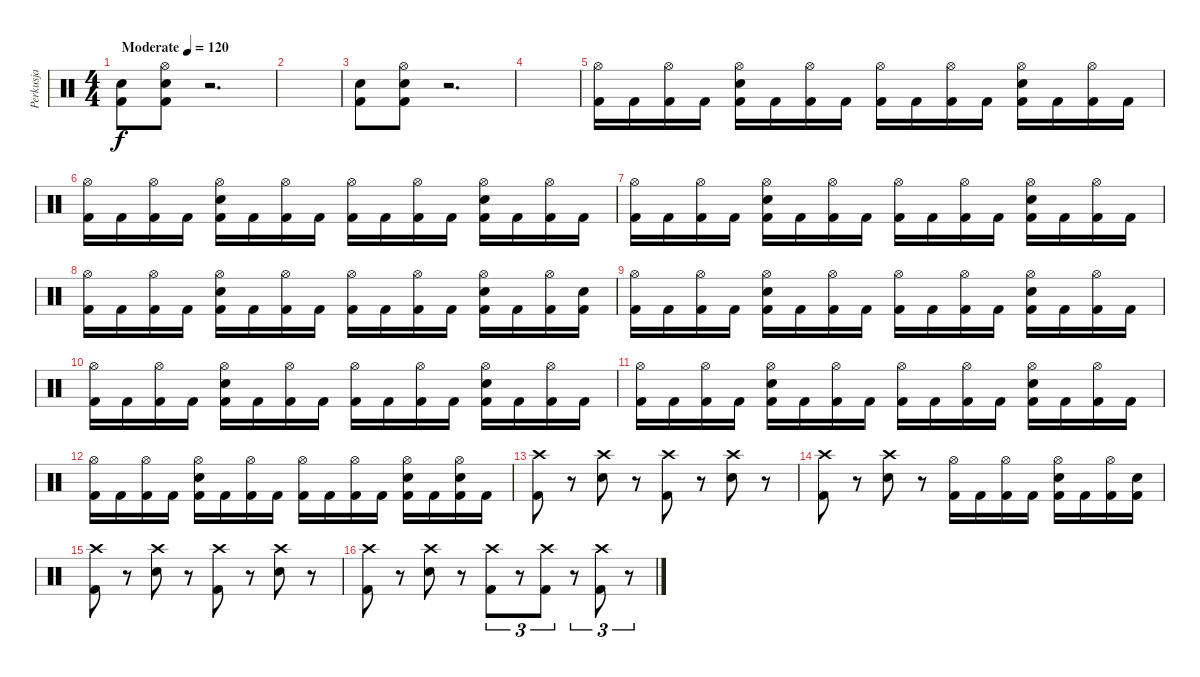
\track ("Perkusja" "Perkusja") {instrument percussion}
\staff {score}
\articulation defaults
\ts (4 4)
\tempo (120 "Moderate")
\tempo 140
\tempo (120 "Moderate")
\clef neutral
\ks c
("Snare (hit) 2" "Kick (hit) 2").8{dy f} ("Hi-Hat (open)" "Snare (hit) 2" "Kick (hit) 2").8 r.2{d} |
|
("Snare (hit) 2" "Kick (hit) 2").8 ("Hi-Hat (open)" "Snare (hit) 2" "Kick (hit) 2").8 r.2{d} |
|
("Hi-Hat (open)" "Kick (hit) 2").16 "Kick (hit) 2".16 ("Hi-Hat (open)" "Kick (hit) 2").16 "Kick (hit) 2".16 ("Hi-Hat (open)" "Snare (hit) 2" "Kick (hit) 2").16 "Kick (hit) 2".16 ("Hi-Hat (open)" "Kick (hit) 2").16 "Kick (hit) 2".16 ("Hi-Hat (open)" "Kick (hit) 2").16 "Kick (hit) 2".16 ("Hi-Hat (open)" "Kick (hit) 2").16 "Kick (hit) 2".16 ("Hi-Hat (open)" "Snare (hit) 2" "Kick (hit) 2").16 "Kick (hit) 2".16 ("Hi-Hat (open)" "Kick (hit) 2").16 "Kick (hit) 2".16 |
("Hi-Hat (open)" "Kick (hit) 2").16 "Kick (hit) 2".16 ("Hi-Hat (open)" "Kick (hit) 2").16 "Kick (hit) 2".16 ("Hi-Hat (open)" "Snare (hit) 2" "Kick (hit) 2").16 "Kick (hit) 2".16 ("Hi-Hat (open)" "Kick (hit) 2").16 "Kick (hit) 2".16 ("Hi-Hat (open)" "Kick (hit) 2").16 "Kick (hit) 2".16 ("Hi-Hat (open)" "Kick (hit) 2").16 "Kick (hit) 2".16 ("Hi-Hat (open)" "Snare (hit) 2" "Kick (hit) 2").16 "Kick (hit) 2".16 ("Hi-Hat (open)" "Kick (hit) 2").16 "Kick (hit) 2".16 |
("Hi-Hat (open)" "Kick (hit) 2").16 "Kick (hit) 2".16 ("Hi-Hat (open)" "Kick (hit) 2").16 "Kick (hit) 2".16 ("Hi-Hat (open)" "Snare (hit) 2" "Kick (hit) 2").16 "Kick (hit) 2".16 ("Hi-Hat (open)" "Kick (hit) 2").16 "Kick (hit) 2".16 ("Hi-Hat (open)" "Kick (hit) 2").16 "Kick (hit) 2".16 ("Hi-Hat (open)" "Kick (hit) 2").16 "Kick (hit) 2".16 ("Hi-Hat (open)" "Snare (hit) 2" "Kick (hit) 2").16 "Kick (hit) 2".16 ("Hi-Hat (open)" "Kick (hit) 2").16 "Kick (hit) 2".16 |
("Hi-Hat (open)" "Kick (hit) 2").16 "Kick (hit) 2".16 ("Hi-Hat (open)" "Kick (hit) 2").16 "Kick (hit) 2".16 ("Hi-Hat (open)" "Snare (hit) 2" "Kick (hit) 2").16 "Kick (hit) 2".16 ("Hi-Hat (open)" "Kick (hit) 2").16 "Kick (hit) 2".16 ("Hi-Hat (open)" "Kick (hit) 2").16 "Kick (hit) 2".16 ("Hi-Hat (open)" "Kick (hit) 2").16 "Kick (hit) 2".16 ("Hi-Hat (open)" "Snare (hit) 2" "Kick (hit) 2").16 "Kick (hit) 2".16 ("Hi-Hat (open)" "Kick (hit) 2").16 ("Snare (hit) 2" "Kick (hit) 2").16 |
("Hi-Hat (open)" "Kick (hit) 2").16 "Kick (hit) 2".16 ("Hi-Hat (open)" "Kick (hit) 2").16 "Kick (hit) 2".16 ("Hi-Hat (open)" "Snare (hit) 2" "Kick (hit) 2").16 "Kick (hit) 2".16 ("Hi-Hat (open)" "Kick (hit) 2").16 "Kick (hit) 2".16 ("Hi-Hat (open)" "Kick (hit) 2").16 "Kick (hit) 2".16 ("Hi-Hat (open)" "Kick (hit) 2").16 "Kick (hit) 2".16 ("Hi-Hat (open)" "Snare (hit) 2" "Kick (hit) 2").16 "Kick (hit) 2".16 ("Hi-Hat (open)" "Kick (hit) 2").16 "Kick (hit) 2".16 |
("Hi-Hat (open)" "Kick (hit) 2").16 "Kick (hit) 2".16 ("Hi-Hat (open)" "Kick (hit) 2").16 "Kick (hit) 2".16 ("Hi-Hat (open)" "Snare (hit) 2" "Kick (hit) 2").16 "Kick (hit) 2".16 ("Hi-Hat (open)" "Kick (hit) 2").16 "Kick (hit) 2".16 ("Hi-Hat (open)" "Kick (hit) 2").16 "Kick (hit) 2".16 ("Hi-Hat (open)" "Kick (hit) 2").16 "Kick (hit) 2".16 ("Hi-Hat (open)" "Snare (hit) 2" "Kick (hit) 2").16 "Kick (hit) 2".16 ("Hi-Hat (open)" "Kick (hit) 2").16 "Kick (hit) 2".16 |
("Hi-Hat (open)" "Kick (hit) 2").16 "Kick (hit) 2".16 ("Hi-Hat (open)" "Kick (hit) 2").16 "Kick (hit) 2".16 ("Hi-Hat (open)" "Snare (hit) 2" "Kick (hit) 2").16 "Kick (hit) 2".16 ("Hi-Hat (open)" "Kick (hit) 2").16 "Kick (hit) 2".16 ("Hi-Hat (open)" "Kick (hit) 2").16 "Kick (hit) 2".16 ("Hi-Hat (open)" "Kick (hit) 2").16 "Kick (hit) 2".16 ("Hi-Hat (open)" "Snare (hit) 2" "Kick (hit) 2").16 "Kick (hit) 2".16 ("Hi-Hat (open)" "Kick (hit) 2").16 "Kick (hit) 2".16 |
("Hi-Hat (open)" "Kick (hit) 2").16 "Kick (hit) 2".16 ("Hi-Hat (open)" "Kick (hit) 2").16 "Kick (hit) 2".16 ("Hi-Hat (open)" "Snare (hit) 2" "Kick (hit) 2").16 "Kick (hit) 2".16 ("Hi-Hat (open)" "Kick (hit) 2").16 "Kick (hit) 2".16 ("Hi-Hat (open)" "Kick (hit) 2").16 "Kick (hit) 2".16 ("Hi-Hat (open)" "Kick (hit) 2").16 "Kick (hit) 2".16 ("Hi-Hat (open)" "Snare (hit) 2" "Kick (hit) 2").16 "Kick (hit) 2".16 ("Hi-Hat (open)" "Snare (hit) 2" "Kick (hit) 2").16 "Kick (hit) 2".16 |
("Crash high (hit)" "Kick (hit) 2").8 r.8 ("Crash high (hit)" "Snare (hit) 2").8 r.8 ("Crash high (hit)" "Kick (hit) 2").8 r.8 ("Crash high (hit)" "Snare (hit) 2").8 r.8 |
("Crash high (hit)" "Kick (hit) 2").8 r.8 ("Crash high (hit)" "Snare (hit) 2").8 r.8 ("Hi-Hat (open)" "Kick (hit) 2").16 "Kick (hit) 2".16 ("Hi-Hat (open)" "Kick (hit) 2").16 "Kick (hit) 2".16 ("Hi-Hat (open)" "Snare (hit) 2" "Kick (hit) 2").16 "Kick (hit) 2".16 ("Hi-Hat (open)" "Kick (hit) 2").16 ("Snare (hit) 2" "Kick (hit) 2").16 |
("Crash high (hit)" "Kick (hit) 2").8 r.8 ("Crash high (hit)" "Snare (hit) 2").8 r.8 ("Crash high (hit)" "Kick (hit) 2").8 r.8 ("Crash high (hit)" "Snare (hit) 2").8 r.8 |
("Crash high (hit)" "Kick (hit) 2").8 r.8 ("Crash high (hit)" "Snare (hit) 2").8 r.8 ("Crash high (hit)" "Kick (hit) 2").8{tu (3 2)} r.8{tu (3 2)} ("Crash high (hit)" "Kick (hit) 2").8{tu (3 2)} r.8{tu (3 2)} ("Crash high (hit)" "Kick (hit) 2").8{tu (3 2)} r.8{tu (3 2)}
